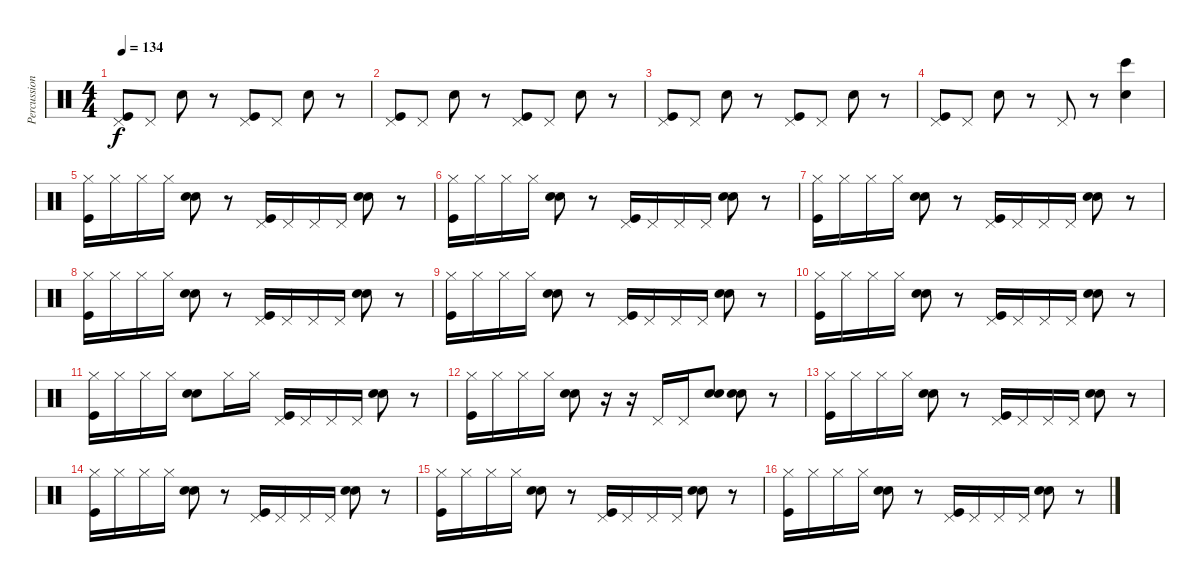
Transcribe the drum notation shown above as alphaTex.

\track ("Percussion" "Percussion") {instrument percussion}
\staff {score}
\articulation defaults
\ts (4 4)
\tempo 134
\clef neutral
\ks c
("Pedal Hi-Hat (hit)" "Kick (hit)").8{dy f} "Pedal Hi-Hat (hit)".8 "Electric Snare (hit)".8 r.8 ("Pedal Hi-Hat (hit)" "Kick (hit)").8 "Pedal Hi-Hat (hit)".8 "Electric Snare (hit)".8 r.8 |
("Pedal Hi-Hat (hit)" "Kick (hit)").8 "Pedal Hi-Hat (hit)".8 "Electric Snare (hit)".8 r.8 ("Pedal Hi-Hat (hit)" "Kick (hit)").8 "Pedal Hi-Hat (hit)".8 "Electric Snare (hit)".8 r.8 |
("Pedal Hi-Hat (hit)" "Kick (hit)").8 "Pedal Hi-Hat (hit)".8 "Electric Snare (hit)".8 r.8 ("Pedal Hi-Hat (hit)" "Kick (hit)").8 "Pedal Hi-Hat (hit)".8 "Electric Snare (hit)".8 r.8 |
("Pedal Hi-Hat (hit)" "Kick (hit)").8 "Pedal Hi-Hat (hit)".8 "Electric Snare (hit)".8 r.8 "Pedal Hi-Hat (hit)".8 r.8 ("Bongo High (hit)" "Electric Snare (hit)").4 |
("Hi-Hat (closed)" "Kick (hit)").16 "Hi-Hat (closed)".16 "Hi-Hat (closed)".16 "Hi-Hat (closed)".16 ("Hand Clap (hit)" "Electric Snare (hit)").8 r.8 ("Pedal Hi-Hat (hit)" "Kick (hit)").16 "Pedal Hi-Hat (hit)".16 "Pedal Hi-Hat (hit)".16 "Pedal Hi-Hat (hit)".16 ("Hand Clap (hit)" "Electric Snare (hit)").8 r.8 |
("Hi-Hat (closed)" "Kick (hit)").16 "Hi-Hat (closed)".16 "Hi-Hat (closed)".16 "Hi-Hat (closed)".16 ("Hand Clap (hit)" "Electric Snare (hit)").8 r.8 ("Pedal Hi-Hat (hit)" "Kick (hit)").16 "Pedal Hi-Hat (hit)".16 "Pedal Hi-Hat (hit)".16 "Pedal Hi-Hat (hit)".16 ("Hand Clap (hit)" "Electric Snare (hit)").8 r.8 |
("Hi-Hat (closed)" "Kick (hit)").16 "Hi-Hat (closed)".16 "Hi-Hat (closed)".16 "Hi-Hat (closed)".16 ("Hand Clap (hit)" "Electric Snare (hit)").8 r.8 ("Pedal Hi-Hat (hit)" "Kick (hit)").16 "Pedal Hi-Hat (hit)".16 "Pedal Hi-Hat (hit)".16 "Pedal Hi-Hat (hit)".16 ("Hand Clap (hit)" "Electric Snare (hit)").8 r.8 |
("Hi-Hat (closed)" "Kick (hit)").16 "Hi-Hat (closed)".16 "Hi-Hat (closed)".16 "Hi-Hat (closed)".16 ("Hand Clap (hit)" "Electric Snare (hit)").8 r.8 ("Pedal Hi-Hat (hit)" "Kick (hit)").16 "Pedal Hi-Hat (hit)".16 "Pedal Hi-Hat (hit)".16 "Pedal Hi-Hat (hit)".16 ("Hand Clap (hit)" "Electric Snare (hit)").8 r.8 |
("Hi-Hat (closed)" "Kick (hit)").16 "Hi-Hat (closed)".16 "Hi-Hat (closed)".16 "Hi-Hat (closed)".16 ("Hand Clap (hit)" "Electric Snare (hit)").8 r.8 ("Pedal Hi-Hat (hit)" "Kick (hit)").16 "Pedal Hi-Hat (hit)".16 "Pedal Hi-Hat (hit)".16 "Pedal Hi-Hat (hit)".16 ("Hand Clap (hit)" "Electric Snare (hit)").8 r.8 |
("Hi-Hat (closed)" "Kick (hit)").16 "Hi-Hat (closed)".16 "Hi-Hat (closed)".16 "Hi-Hat (closed)".16 ("Hand Clap (hit)" "Electric Snare (hit)").8 r.8 ("Pedal Hi-Hat (hit)" "Kick (hit)").16 "Pedal Hi-Hat (hit)".16 "Pedal Hi-Hat (hit)".16 "Pedal Hi-Hat (hit)".16 ("Hand Clap (hit)" "Electric Snare (hit)").8 r.8 |
("Hi-Hat (closed)" "Kick (hit)").16 "Hi-Hat (closed)".16 "Hi-Hat (closed)".16 "Hi-Hat (closed)".16 ("Hand Clap (hit)" "Electric Snare (hit)").8 "Hi-Hat (closed)".16 "Hi-Hat (closed)".16 ("Pedal Hi-Hat (hit)" "Kick (hit)").16 "Pedal Hi-Hat (hit)".16 "Pedal Hi-Hat (hit)".16 "Pedal Hi-Hat (hit)".16 ("Hand Clap (hit)" "Electric Snare (hit)").8 r.8 |
("Hi-Hat (closed)" "Kick (hit)").16 "Hi-Hat (closed)".16 "Hi-Hat (closed)".16 "Hi-Hat (closed)".16 ("Hand Clap (hit)" "Electric Snare (hit)").8 r.16 r.16 "Pedal Hi-Hat (hit)".16 "Pedal Hi-Hat (hit)".16 ("Hand Clap (hit)" "Electric Snare (hit)").8 ("Hand Clap (hit)" "Electric Snare (hit)").8 r.8 |
("Hi-Hat (closed)" "Kick (hit)").16 "Hi-Hat (closed)".16 "Hi-Hat (closed)".16 "Hi-Hat (closed)".16 ("Hand Clap (hit)" "Electric Snare (hit)").8 r.8 ("Pedal Hi-Hat (hit)" "Kick (hit)").16 "Pedal Hi-Hat (hit)".16 "Pedal Hi-Hat (hit)".16 "Pedal Hi-Hat (hit)".16 ("Hand Clap (hit)" "Electric Snare (hit)").8 r.8 |
("Hi-Hat (closed)" "Kick (hit)").16 "Hi-Hat (closed)".16 "Hi-Hat (closed)".16 "Hi-Hat (closed)".16 ("Hand Clap (hit)" "Electric Snare (hit)").8 r.8 ("Pedal Hi-Hat (hit)" "Kick (hit)").16 "Pedal Hi-Hat (hit)".16 "Pedal Hi-Hat (hit)".16 "Pedal Hi-Hat (hit)".16 ("Hand Clap (hit)" "Electric Snare (hit)").8 r.8 |
("Hi-Hat (closed)" "Kick (hit)").16 "Hi-Hat (closed)".16 "Hi-Hat (closed)".16 "Hi-Hat (closed)".16 ("Hand Clap (hit)" "Electric Snare (hit)").8 r.8 ("Pedal Hi-Hat (hit)" "Kick (hit)").16 "Pedal Hi-Hat (hit)".16 "Pedal Hi-Hat (hit)".16 "Pedal Hi-Hat (hit)".16 ("Hand Clap (hit)" "Electric Snare (hit)").8 r.8 |
("Hi-Hat (closed)" "Kick (hit)").16 "Hi-Hat (closed)".16 "Hi-Hat (closed)".16 "Hi-Hat (closed)".16 ("Hand Clap (hit)" "Electric Snare (hit)").8 r.8 ("Pedal Hi-Hat (hit)" "Kick (hit)").16 "Pedal Hi-Hat (hit)".16 "Pedal Hi-Hat (hit)".16 "Pedal Hi-Hat (hit)".16 ("Hand Clap (hit)" "Electric Snare (hit)").8 r.8
